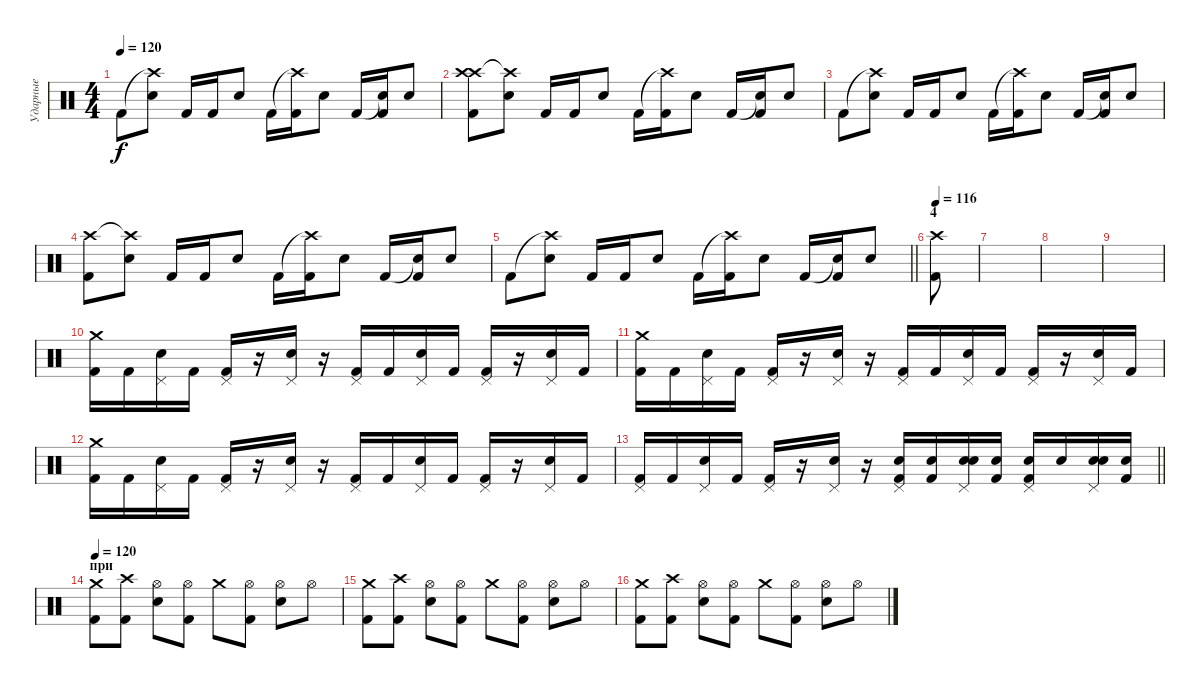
\track ("Ударные" "Ударные") {instrument percussion}
\staff {score}
\articulation defaults
\ts (4 4)
\tempo 120
\clef neutral
\ks c "Kick (hit) 2".8{dy f}
("Crash high (hit)"{t} "Electric Snare (hit)").8 "Kick (hit) 2".16 "Kick (hit) 2".16 "Electric Snare (hit)".8 "Kick (hit) 2".16 ("Crash high (hit)"{t} "Kick (hit) 2").16 "Electric Snare (hit)".8 "Kick (hit) 2".16 ("Snare (hit)"{t} "Kick (hit) 2").16 "Electric Snare (hit)".8 |
("Crash high (hit)" "Crash high (hit)" "Kick (hit) 2").8 ("Crash high (hit)"{t} "Electric Snare (hit)").8 "Kick (hit) 2".16 "Kick (hit) 2".16 "Electric Snare (hit)".8 "Kick (hit) 2".16 ("Crash high (hit)"{t} "Kick (hit) 2").16 "Electric Snare (hit)".8 "Kick (hit) 2".16 ("Snare (hit)"{t} "Kick (hit) 2").16 "Electric Snare (hit)".8 |
"Kick (hit) 2".8 ("Crash high (hit)"{t} "Electric Snare (hit)").8 "Kick (hit) 2".16 "Kick (hit) 2".16 "Electric Snare (hit)".8 "Kick (hit) 2".16 ("Crash high (hit)"{t} "Kick (hit) 2").16 "Electric Snare (hit)".8 "Kick (hit) 2".16 ("Snare (hit)"{t} "Kick (hit) 2").16 "Electric Snare (hit)".8 |
("Crash high (hit)" "Kick (hit) 2").8 ("Crash high (hit)"{t} "Electric Snare (hit)").8 "Kick (hit) 2".16 "Kick (hit) 2".16 "Electric Snare (hit)".8 "Kick (hit) 2".16 ("Crash high (hit)"{t} "Kick (hit) 2").16 "Electric Snare (hit)".8 "Kick (hit) 2".16 ("Snare (hit)"{t} "Kick (hit) 2").16 "Electric Snare (hit)".8 |
\barLineRight lightlight "Kick (hit) 2".8
("Crash high (hit)"{t} "Electric Snare (hit)").8 "Kick (hit) 2".16 "Kick (hit) 2".16 "Electric Snare (hit)".8 "Kick (hit) 2".16 ("Crash high (hit)"{t} "Kick (hit) 2").16 "Electric Snare (hit)".8 "Kick (hit) 2".16 ("Snare (hit)"{t} "Kick (hit) 2").16 "Electric Snare (hit)".8 |
\section ("" "4")
\tempo 116
("Crash high (hit)" "Kick (hit) 2").8 |
|
|
|
("Crash medium (hit)" "Kick (hit) 2").16 "Kick (hit) 2".16 ("Pedal Hi-Hat (hit)" "Electric Snare (hit)").16 "Kick (hit) 2".16 ("Pedal Hi-Hat (hit)" "Kick (hit) 2").16 r.16 ("Pedal Hi-Hat (hit)" "Electric Snare (hit)").16 r.16 ("Pedal Hi-Hat (hit)" "Kick (hit) 2").16 "Kick (hit) 2".16 ("Pedal Hi-Hat (hit)" "Electric Snare (hit)").16 "Kick (hit) 2".16 ("Pedal Hi-Hat (hit)" "Kick (hit) 2").16 r.16 ("Pedal Hi-Hat (hit)" "Electric Snare (hit)").16 "Kick (hit) 2".16 |
("Crash medium (hit)" "Kick (hit) 2").16 "Kick (hit) 2".16 ("Pedal Hi-Hat (hit)" "Electric Snare (hit)").16 "Kick (hit) 2".16 ("Pedal Hi-Hat (hit)" "Kick (hit) 2").16 r.16 ("Pedal Hi-Hat (hit)" "Electric Snare (hit)").16 r.16 ("Pedal Hi-Hat (hit)" "Kick (hit) 2").16 "Kick (hit) 2".16 ("Pedal Hi-Hat (hit)" "Electric Snare (hit)").16 "Kick (hit) 2".16 ("Pedal Hi-Hat (hit)" "Kick (hit) 2").16 r.16 ("Pedal Hi-Hat (hit)" "Electric Snare (hit)").16 "Kick (hit) 2".16 |
("Crash medium (hit)" "Kick (hit) 2").16 "Kick (hit) 2".16 ("Pedal Hi-Hat (hit)" "Electric Snare (hit)").16 "Kick (hit) 2".16 ("Pedal Hi-Hat (hit)" "Kick (hit) 2").16 r.16 ("Pedal Hi-Hat (hit)" "Electric Snare (hit)").16 r.16 ("Pedal Hi-Hat (hit)" "Kick (hit) 2").16 "Kick (hit) 2".16 ("Pedal Hi-Hat (hit)" "Electric Snare (hit)").16 "Kick (hit) 2".16 ("Pedal Hi-Hat (hit)" "Kick (hit) 2").16 r.16 ("Pedal Hi-Hat (hit)" "Electric Snare (hit)").16 "Kick (hit) 2".16 |
\barLineRight lightlight
("Pedal Hi-Hat (hit)" "Kick (hit) 2").16 "Kick (hit) 2".16 ("Pedal Hi-Hat (hit)" "Electric Snare (hit)").16 "Kick (hit) 2".16 ("Pedal Hi-Hat (hit)" "Kick (hit) 2").16 r.16 ("Pedal Hi-Hat (hit)" "Electric Snare (hit)").16 r.16 ("Electric Snare (hit)" "Pedal Hi-Hat (hit)" "Kick (hit) 2").16 ("Electric Snare (hit)" "Kick (hit) 2").16 ("Electric Snare (hit)" "Pedal Hi-Hat (hit)" "Electric Snare (hit)").16 ("Electric Snare (hit)" "Kick (hit) 2").16 ("Electric Snare (hit)" "Pedal Hi-Hat (hit)" "Kick (hit) 2").16 "Electric Snare (hit)".16 ("Electric Snare (hit)" "Pedal Hi-Hat (hit)" "Electric Snare (hit)").16 ("Electric Snare (hit)" "Kick (hit) 2").16 |
\section ("" "при")
\tempo 120
("Crash medium (hit)" "Kick (hit) 2").8 ("Crash high (hit)" "Kick (hit) 2").8 ("Hi-Hat (open)" "Electric Snare (hit)").8 ("Hi-Hat (open)" "Kick (hit) 2").8 "Crash medium (hit)".8 ("Hi-Hat (open)" "Kick (hit) 2").8 ("Hi-Hat (open)" "Electric Snare (hit)").8 "Hi-Hat (open)".8 |
("Crash medium (hit)" "Kick (hit) 2").8 ("Crash high (hit)" "Kick (hit) 2").8 ("Hi-Hat (open)" "Electric Snare (hit)").8 ("Hi-Hat (open)" "Kick (hit) 2").8 "Crash medium (hit)".8 ("Hi-Hat (open)" "Kick (hit) 2").8 ("Hi-Hat (open)" "Electric Snare (hit)").8 "Hi-Hat (open)".8 |
("Crash medium (hit)" "Kick (hit) 2").8 ("Crash high (hit)" "Kick (hit) 2").8 ("Hi-Hat (open)" "Electric Snare (hit)").8 ("Hi-Hat (open)" "Kick (hit) 2").8 "Crash medium (hit)".8 ("Hi-Hat (open)" "Kick (hit) 2").8 ("Hi-Hat (open)" "Electric Snare (hit)").8 "Hi-Hat (open)".8
